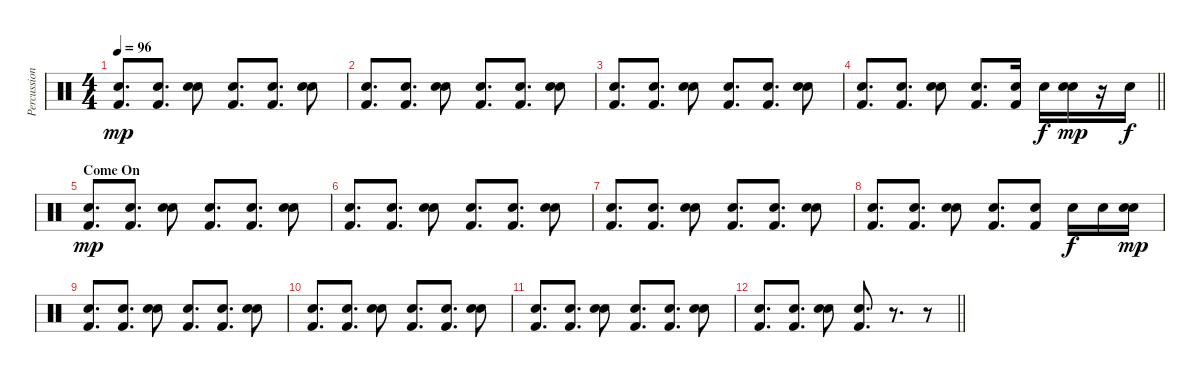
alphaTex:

\track ("Percussion" "Percussion") {instrument percussion bank 2}
\staff {score}
\articulation defaults
\ts (4 4)
\tempo 96
\clef neutral
\ks c
("Hand Clap (hit)" "Kick (hit) 2").8{d dy mp} ("Hand Clap (hit)" "Kick (hit) 2").8{d} ("Hand Clap (hit)" "Snare (hit) 2").8 ("Hand Clap (hit)" "Kick (hit) 2").8{d} ("Hand Clap (hit)" "Kick (hit) 2").8{d} ("Hand Clap (hit)" "Snare (hit) 2").8 |
("Hand Clap (hit)" "Kick (hit) 2").8{d} ("Hand Clap (hit)" "Kick (hit) 2").8{d} ("Hand Clap (hit)" "Snare (hit) 2").8 ("Hand Clap (hit)" "Kick (hit) 2").8{d} ("Hand Clap (hit)" "Kick (hit) 2").8{d} ("Hand Clap (hit)" "Snare (hit) 2").8 |
("Hand Clap (hit)" "Kick (hit) 2").8{d} ("Hand Clap (hit)" "Kick (hit) 2").8{d} ("Hand Clap (hit)" "Snare (hit) 2").8 ("Hand Clap (hit)" "Kick (hit) 2").8{d} ("Hand Clap (hit)" "Kick (hit) 2").8{d} ("Hand Clap (hit)" "Snare (hit) 2").8 |
\barLineRight lightlight
("Hand Clap (hit)" "Kick (hit) 2").8{d} ("Hand Clap (hit)" "Kick (hit) 2").8{d} ("Hand Clap (hit)" "Snare (hit) 2").8 ("Hand Clap (hit)" "Kick (hit) 2").8{d} ("Hand Clap (hit)" "Kick (hit) 2").16 "Snare (hit) 2".16{dy f} ("Hand Clap (hit)" "Snare (hit) 2").16{dy mp} r.16 "Snare (hit) 2".16{dy f} |
\section ("" "Come On")
("Hand Clap (hit)" "Kick (hit) 2").8{d dy mp} ("Hand Clap (hit)" "Kick (hit) 2").8{d} ("Hand Clap (hit)" "Snare (hit) 2").8 ("Hand Clap (hit)" "Kick (hit) 2").8{d} ("Hand Clap (hit)" "Kick (hit) 2").8{d} ("Hand Clap (hit)" "Snare (hit) 2").8 |
("Hand Clap (hit)" "Kick (hit) 2").8{d} ("Hand Clap (hit)" "Kick (hit) 2").8{d} ("Hand Clap (hit)" "Snare (hit) 2").8 ("Hand Clap (hit)" "Kick (hit) 2").8{d} ("Hand Clap (hit)" "Kick (hit) 2").8{d} ("Hand Clap (hit)" "Snare (hit) 2").8 |
("Hand Clap (hit)" "Kick (hit) 2").8{d} ("Hand Clap (hit)" "Kick (hit) 2").8{d} ("Hand Clap (hit)" "Snare (hit) 2").8 ("Hand Clap (hit)" "Kick (hit) 2").8{d} ("Hand Clap (hit)" "Kick (hit) 2").8{d} ("Hand Clap (hit)" "Snare (hit) 2").8 |
("Hand Clap (hit)" "Kick (hit) 2").8{d} ("Hand Clap (hit)" "Kick (hit) 2").8{d} ("Hand Clap (hit)" "Snare (hit) 2").8 ("Hand Clap (hit)" "Kick (hit) 2").8{d} ("Hand Clap (hit)" "Kick (hit) 2").8 "Snare (hit) 2".16{dy f} "Snare (hit) 2".16 ("Hand Clap (hit)" "Snare (hit) 2").16{dy mp} |
("Hand Clap (hit)" "Kick (hit) 2").8{d} ("Hand Clap (hit)" "Kick (hit) 2").8{d} ("Hand Clap (hit)" "Snare (hit) 2").8 ("Hand Clap (hit)" "Kick (hit) 2").8{d} ("Hand Clap (hit)" "Kick (hit) 2").8{d} ("Hand Clap (hit)" "Snare (hit) 2").8 |
("Hand Clap (hit)" "Kick (hit) 2").8{d} ("Hand Clap (hit)" "Kick (hit) 2").8{d} ("Hand Clap (hit)" "Snare (hit) 2").8 ("Hand Clap (hit)" "Kick (hit) 2").8{d} ("Hand Clap (hit)" "Kick (hit) 2").8{d} ("Hand Clap (hit)" "Snare (hit) 2").8 |
("Hand Clap (hit)" "Kick (hit) 2").8{d} ("Hand Clap (hit)" "Kick (hit) 2").8{d} ("Hand Clap (hit)" "Snare (hit) 2").8 ("Hand Clap (hit)" "Kick (hit) 2").8{d} ("Hand Clap (hit)" "Kick (hit) 2").8{d} ("Hand Clap (hit)" "Snare (hit) 2").8 |
\barLineRight lightlight
("Hand Clap (hit)" "Kick (hit) 2").8{d} ("Hand Clap (hit)" "Kick (hit) 2").8{d} ("Hand Clap (hit)" "Snare (hit) 2").8 ("Hand Clap (hit)" "Kick (hit) 2").8{d} r.8{d} r.8
